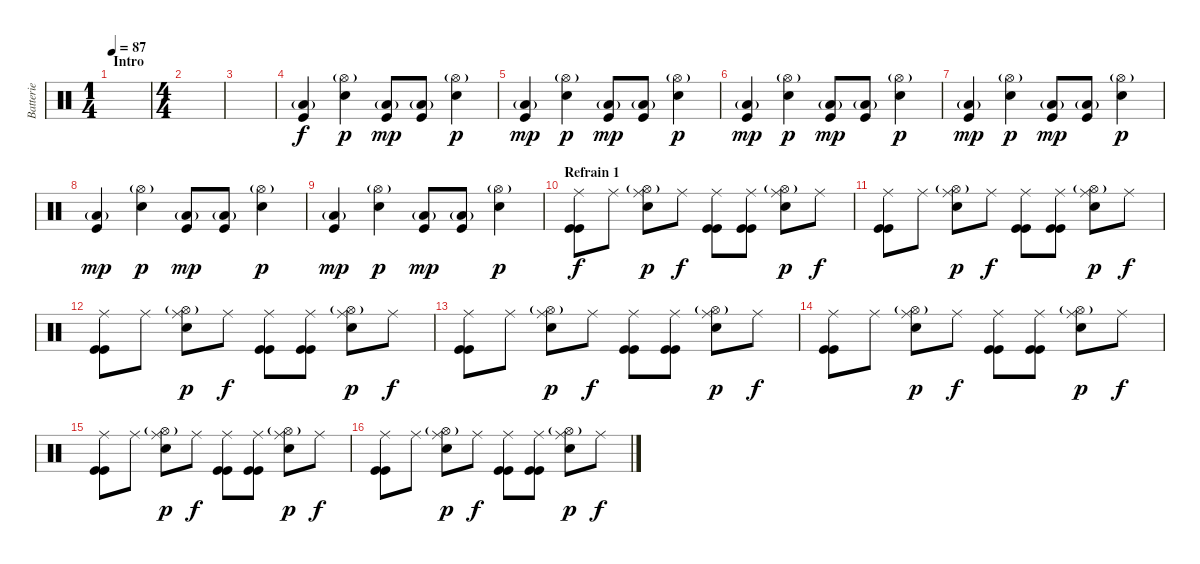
\track ("Batterie" "Batterie") {instrument percussion}
\staff {score}
\articulation defaults
\ts (1 4)
\section ("" "Intro")
\tempo 87
\clef neutral
\ks c
|
\ts (4 4)
|
|
("Kick (hit)" "Low Floor Tom (hit)"{g}).4 ("Hi-Hat (open)"{g} "Electric Snare (hit)").4{dy p} ("Kick (hit)" "Low Floor Tom (hit)"{g}).8{dy mp} ("Kick (hit)" "Low Floor Tom (hit)"{g}).8 ("Hi-Hat (open)"{g} "Electric Snare (hit)").4{dy p} |
("Kick (hit)" "Low Floor Tom (hit)"{g}).4{dy mp} ("Hi-Hat (open)"{g} "Electric Snare (hit)").4{dy p} ("Kick (hit)" "Low Floor Tom (hit)"{g}).8{dy mp} ("Kick (hit)" "Low Floor Tom (hit)"{g}).8 ("Hi-Hat (open)"{g} "Electric Snare (hit)").4{dy p} |
("Kick (hit)" "Low Floor Tom (hit)"{g}).4{dy mp} ("Hi-Hat (open)"{g} "Electric Snare (hit)").4{dy p} ("Kick (hit)" "Low Floor Tom (hit)"{g}).8{dy mp} ("Kick (hit)" "Low Floor Tom (hit)"{g}).8 ("Hi-Hat (open)"{g} "Electric Snare (hit)").4{dy p} |
("Kick (hit)" "Low Floor Tom (hit)"{g}).4{dy mp} ("Hi-Hat (open)"{g} "Electric Snare (hit)").4{dy p} ("Kick (hit)" "Low Floor Tom (hit)"{g}).8{dy mp} ("Kick (hit)" "Low Floor Tom (hit)"{g}).8 ("Hi-Hat (open)"{g} "Electric Snare (hit)").4{dy p} |
("Kick (hit)" "Low Floor Tom (hit)"{g}).4{dy mp} ("Hi-Hat (open)"{g} "Electric Snare (hit)").4{dy p} ("Kick (hit)" "Low Floor Tom (hit)"{g}).8{dy mp} ("Kick (hit)" "Low Floor Tom (hit)"{g}).8 ("Hi-Hat (open)"{g} "Electric Snare (hit)").4{dy p} |
("Kick (hit)" "Low Floor Tom (hit)"{g}).4{dy mp} ("Hi-Hat (open)"{g} "Electric Snare (hit)").4{dy p} ("Kick (hit)" "Low Floor Tom (hit)"{g}).8{dy mp} ("Kick (hit)" "Low Floor Tom (hit)"{g}).8 ("Hi-Hat (open)"{g} "Electric Snare (hit)").4{dy p} |
\section ("" "Refrain 1")
("Ride (middle)" "Kick (hit)" "Kick (hit)").8{dy f} "Ride (middle)".8 ("Hi-Hat (open)"{g} "Ride (middle)" "Electric Snare (hit)").8{dy p} "Ride (middle)".8{dy f} ("Ride (middle)" "Kick (hit)" "Kick (hit)").8 ("Ride (middle)" "Kick (hit)" "Kick (hit)").8 ("Hi-Hat (open)"{g} "Ride (middle)" "Electric Snare (hit)").8{dy p} "Ride (middle)".8{dy f} |
("Ride (middle)" "Kick (hit)" "Kick (hit)").8 "Ride (middle)".8 ("Hi-Hat (open)"{g} "Ride (middle)" "Electric Snare (hit)").8{dy p} "Ride (middle)".8{dy f} ("Ride (middle)" "Kick (hit)" "Kick (hit)").8 ("Ride (middle)" "Kick (hit)" "Kick (hit)").8 ("Hi-Hat (open)"{g} "Ride (middle)" "Electric Snare (hit)").8{dy p} "Ride (middle)".8{dy f} |
("Ride (middle)" "Kick (hit)" "Kick (hit)").8 "Ride (middle)".8 ("Hi-Hat (open)"{g} "Ride (middle)" "Electric Snare (hit)").8{dy p} "Ride (middle)".8{dy f} ("Ride (middle)" "Kick (hit)" "Kick (hit)").8 ("Ride (middle)" "Kick (hit)" "Kick (hit)").8 ("Hi-Hat (open)"{g} "Ride (middle)" "Electric Snare (hit)").8{dy p} "Ride (middle)".8{dy f} |
("Ride (middle)" "Kick (hit)" "Kick (hit)").8 "Ride (middle)".8 ("Hi-Hat (open)"{g} "Ride (middle)" "Electric Snare (hit)").8{dy p} "Ride (middle)".8{dy f} ("Ride (middle)" "Kick (hit)" "Kick (hit)").8 ("Ride (middle)" "Kick (hit)" "Kick (hit)").8 ("Hi-Hat (open)"{g} "Ride (middle)" "Electric Snare (hit)").8{dy p} "Ride (middle)".8{dy f} |
("Ride (middle)" "Kick (hit)" "Kick (hit)").8 "Ride (middle)".8 ("Hi-Hat (open)"{g} "Ride (middle)" "Electric Snare (hit)").8{dy p} "Ride (middle)".8{dy f} ("Ride (middle)" "Kick (hit)" "Kick (hit)").8 ("Ride (middle)" "Kick (hit)" "Kick (hit)").8 ("Hi-Hat (open)"{g} "Ride (middle)" "Electric Snare (hit)").8{dy p} "Ride (middle)".8{dy f} |
("Ride (middle)" "Kick (hit)" "Kick (hit)").8 "Ride (middle)".8 ("Hi-Hat (open)"{g} "Ride (middle)" "Electric Snare (hit)").8{dy p} "Ride (middle)".8{dy f} ("Ride (middle)" "Kick (hit)" "Kick (hit)").8 ("Ride (middle)" "Kick (hit)" "Kick (hit)").8 ("Hi-Hat (open)"{g} "Ride (middle)" "Electric Snare (hit)").8{dy p} "Ride (middle)".8{dy f} |
("Ride (middle)" "Kick (hit)" "Kick (hit)").8 "Ride (middle)".8 ("Hi-Hat (open)"{g} "Ride (middle)" "Electric Snare (hit)").8{dy p} "Ride (middle)".8{dy f} ("Ride (middle)" "Kick (hit)" "Kick (hit)").8 ("Ride (middle)" "Kick (hit)" "Kick (hit)").8 ("Hi-Hat (open)"{g} "Ride (middle)" "Electric Snare (hit)").8{dy p} "Ride (middle)".8{dy f}
